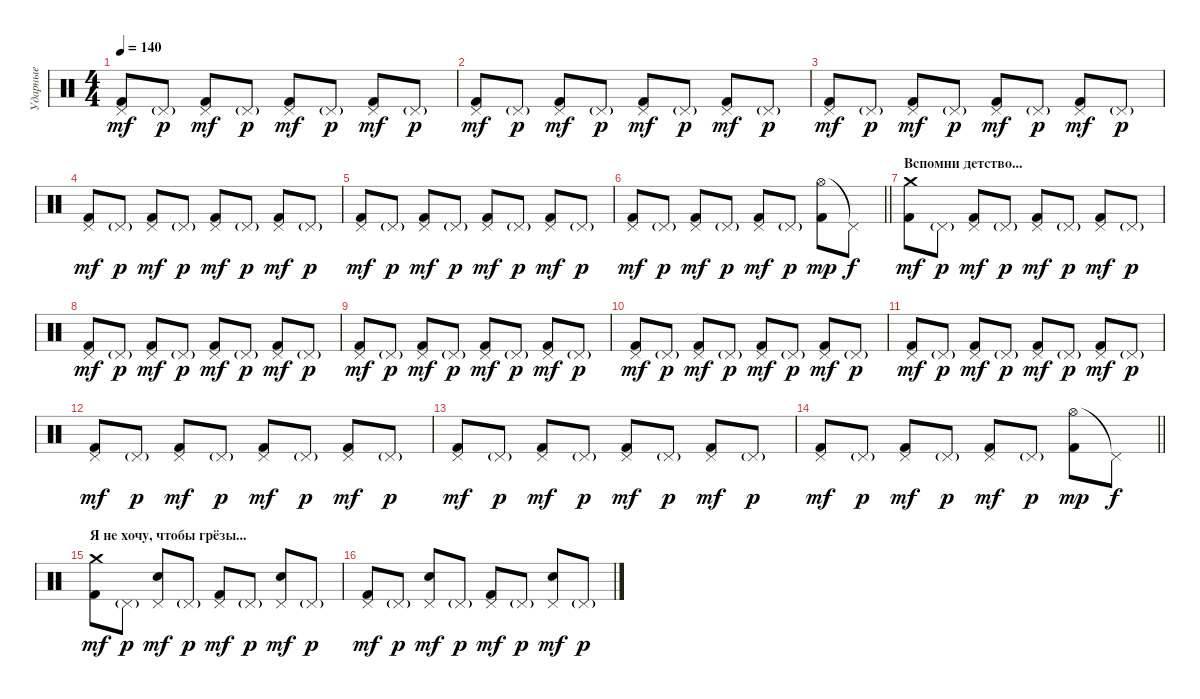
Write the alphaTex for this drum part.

\track ("Ударные" "Ударные") {instrument percussion}
\staff {score}
\articulation defaults
\ts (4 4)
\tempo 140
\clef neutral
\ks c
("Pedal Hi-Hat (hit)" "Kick (hit) 2").8{dy mf} "Pedal Hi-Hat (hit)"{g}.8{dy p} ("Pedal Hi-Hat (hit)" "Kick (hit) 2").8{dy mf} "Pedal Hi-Hat (hit)"{g}.8{dy p} ("Pedal Hi-Hat (hit)" "Kick (hit) 2").8{dy mf} "Pedal Hi-Hat (hit)"{g}.8{dy p} ("Pedal Hi-Hat (hit)" "Kick (hit) 2").8{dy mf} "Pedal Hi-Hat (hit)"{g}.8{dy p} |
("Pedal Hi-Hat (hit)" "Kick (hit) 2").8{dy mf} "Pedal Hi-Hat (hit)"{g}.8{dy p} ("Pedal Hi-Hat (hit)" "Kick (hit) 2").8{dy mf} "Pedal Hi-Hat (hit)"{g}.8{dy p} ("Pedal Hi-Hat (hit)" "Kick (hit) 2").8{dy mf} "Pedal Hi-Hat (hit)"{g}.8{dy p} ("Pedal Hi-Hat (hit)" "Kick (hit) 2").8{dy mf} "Pedal Hi-Hat (hit)"{g}.8{dy p} |
("Pedal Hi-Hat (hit)" "Kick (hit) 2").8{dy mf} "Pedal Hi-Hat (hit)"{g}.8{dy p} ("Pedal Hi-Hat (hit)" "Kick (hit) 2").8{dy mf} "Pedal Hi-Hat (hit)"{g}.8{dy p} ("Pedal Hi-Hat (hit)" "Kick (hit) 2").8{dy mf} "Pedal Hi-Hat (hit)"{g}.8{dy p} ("Pedal Hi-Hat (hit)" "Kick (hit) 2").8{dy mf} "Pedal Hi-Hat (hit)"{g}.8{dy p} |
("Pedal Hi-Hat (hit)" "Kick (hit) 2").8{dy mf} "Pedal Hi-Hat (hit)"{g}.8{dy p} ("Pedal Hi-Hat (hit)" "Kick (hit) 2").8{dy mf} "Pedal Hi-Hat (hit)"{g}.8{dy p} ("Pedal Hi-Hat (hit)" "Kick (hit) 2").8{dy mf} "Pedal Hi-Hat (hit)"{g}.8{dy p} ("Pedal Hi-Hat (hit)" "Kick (hit) 2").8{dy mf} "Pedal Hi-Hat (hit)"{g}.8{dy p} |
("Pedal Hi-Hat (hit)" "Kick (hit) 2").8{dy mf} "Pedal Hi-Hat (hit)"{g}.8{dy p} ("Pedal Hi-Hat (hit)" "Kick (hit) 2").8{dy mf} "Pedal Hi-Hat (hit)"{g}.8{dy p} ("Pedal Hi-Hat (hit)" "Kick (hit) 2").8{dy mf} "Pedal Hi-Hat (hit)"{g}.8{dy p} ("Pedal Hi-Hat (hit)" "Kick (hit) 2").8{dy mf} "Pedal Hi-Hat (hit)"{g}.8{dy p} |
\barLineRight lightlight
("Pedal Hi-Hat (hit)" "Kick (hit) 2").8{dy mf} "Pedal Hi-Hat (hit)"{g}.8{dy p} ("Pedal Hi-Hat (hit)" "Kick (hit) 2").8{dy mf} "Pedal Hi-Hat (hit)"{g}.8{dy p} ("Pedal Hi-Hat (hit)" "Kick (hit) 2").8{dy mf} "Pedal Hi-Hat (hit)"{g}.8{dy p} ("Hi-Hat (open)" "Kick (hit) 2").8{dy mp} "Pedal Hi-Hat (hit)"{t}.8{dy f} |
\section ("" "Вспомни детство...")
("Crash medium (hit)" "Kick (hit) 2").8{dy mf} "Pedal Hi-Hat (hit)"{g}.8{dy p} ("Pedal Hi-Hat (hit)" "Kick (hit) 2").8{dy mf} "Pedal Hi-Hat (hit)"{g}.8{dy p} ("Pedal Hi-Hat (hit)" "Kick (hit) 2").8{dy mf} "Pedal Hi-Hat (hit)"{g}.8{dy p} ("Pedal Hi-Hat (hit)" "Kick (hit) 2").8{dy mf} "Pedal Hi-Hat (hit)"{g}.8{dy p} |
("Pedal Hi-Hat (hit)" "Kick (hit) 2").8{dy mf} "Pedal Hi-Hat (hit)"{g}.8{dy p} ("Pedal Hi-Hat (hit)" "Kick (hit) 2").8{dy mf} "Pedal Hi-Hat (hit)"{g}.8{dy p} ("Pedal Hi-Hat (hit)" "Kick (hit) 2").8{dy mf} "Pedal Hi-Hat (hit)"{g}.8{dy p} ("Pedal Hi-Hat (hit)" "Kick (hit) 2").8{dy mf} "Pedal Hi-Hat (hit)"{g}.8{dy p} |
("Pedal Hi-Hat (hit)" "Kick (hit) 2").8{dy mf} "Pedal Hi-Hat (hit)"{g}.8{dy p} ("Pedal Hi-Hat (hit)" "Kick (hit) 2").8{dy mf} "Pedal Hi-Hat (hit)"{g}.8{dy p} ("Pedal Hi-Hat (hit)" "Kick (hit) 2").8{dy mf} "Pedal Hi-Hat (hit)"{g}.8{dy p} ("Pedal Hi-Hat (hit)" "Kick (hit) 2").8{dy mf} "Pedal Hi-Hat (hit)"{g}.8{dy p} |
("Pedal Hi-Hat (hit)" "Kick (hit) 2").8{dy mf} "Pedal Hi-Hat (hit)"{g}.8{dy p} ("Pedal Hi-Hat (hit)" "Kick (hit) 2").8{dy mf} "Pedal Hi-Hat (hit)"{g}.8{dy p} ("Pedal Hi-Hat (hit)" "Kick (hit) 2").8{dy mf} "Pedal Hi-Hat (hit)"{g}.8{dy p} ("Pedal Hi-Hat (hit)" "Kick (hit) 2").8{dy mf} "Pedal Hi-Hat (hit)"{g}.8{dy p} |
("Pedal Hi-Hat (hit)" "Kick (hit) 2").8{dy mf} "Pedal Hi-Hat (hit)"{g}.8{dy p} ("Pedal Hi-Hat (hit)" "Kick (hit) 2").8{dy mf} "Pedal Hi-Hat (hit)"{g}.8{dy p} ("Pedal Hi-Hat (hit)" "Kick (hit) 2").8{dy mf} "Pedal Hi-Hat (hit)"{g}.8{dy p} ("Pedal Hi-Hat (hit)" "Kick (hit) 2").8{dy mf} "Pedal Hi-Hat (hit)"{g}.8{dy p} |
("Pedal Hi-Hat (hit)" "Kick (hit) 2").8{dy mf} "Pedal Hi-Hat (hit)"{g}.8{dy p} ("Pedal Hi-Hat (hit)" "Kick (hit) 2").8{dy mf} "Pedal Hi-Hat (hit)"{g}.8{dy p} ("Pedal Hi-Hat (hit)" "Kick (hit) 2").8{dy mf} "Pedal Hi-Hat (hit)"{g}.8{dy p} ("Pedal Hi-Hat (hit)" "Kick (hit) 2").8{dy mf} "Pedal Hi-Hat (hit)"{g}.8{dy p} |
("Pedal Hi-Hat (hit)" "Kick (hit) 2").8{dy mf} "Pedal Hi-Hat (hit)"{g}.8{dy p} ("Pedal Hi-Hat (hit)" "Kick (hit) 2").8{dy mf} "Pedal Hi-Hat (hit)"{g}.8{dy p} ("Pedal Hi-Hat (hit)" "Kick (hit) 2").8{dy mf} "Pedal Hi-Hat (hit)"{g}.8{dy p} ("Pedal Hi-Hat (hit)" "Kick (hit) 2").8{dy mf} "Pedal Hi-Hat (hit)"{g}.8{dy p} |
\barLineRight lightlight
("Pedal Hi-Hat (hit)" "Kick (hit) 2").8{dy mf} "Pedal Hi-Hat (hit)"{g}.8{dy p} ("Pedal Hi-Hat (hit)" "Kick (hit) 2").8{dy mf} "Pedal Hi-Hat (hit)"{g}.8{dy p} ("Pedal Hi-Hat (hit)" "Kick (hit) 2").8{dy mf} "Pedal Hi-Hat (hit)"{g}.8{dy p} ("Hi-Hat (open)" "Kick (hit) 2").8{dy mp} "Pedal Hi-Hat (hit)"{t}.8{dy f} |
\section ("" "Я не хочу, чтобы грёзы...")
("Crash medium (hit)" "Kick (hit) 2").8{dy mf} "Pedal Hi-Hat (hit)"{g}.8{dy p} ("Pedal Hi-Hat (hit)" "Snare (hit) 2").8{dy mf} "Pedal Hi-Hat (hit)"{g}.8{dy p} ("Pedal Hi-Hat (hit)" "Kick (hit) 2").8{dy mf} "Pedal Hi-Hat (hit)"{g}.8{dy p} ("Pedal Hi-Hat (hit)" "Snare (hit) 2").8{dy mf} "Pedal Hi-Hat (hit)"{g}.8{dy p} |
("Pedal Hi-Hat (hit)" "Kick (hit) 2").8{dy mf} "Pedal Hi-Hat (hit)"{g}.8{dy p} ("Pedal Hi-Hat (hit)" "Snare (hit) 2").8{dy mf} "Pedal Hi-Hat (hit)"{g}.8{dy p} ("Pedal Hi-Hat (hit)" "Kick (hit) 2").8{dy mf} "Pedal Hi-Hat (hit)"{g}.8{dy p} ("Pedal Hi-Hat (hit)" "Snare (hit) 2").8{dy mf} "Pedal Hi-Hat (hit)"{g}.8{dy p}
